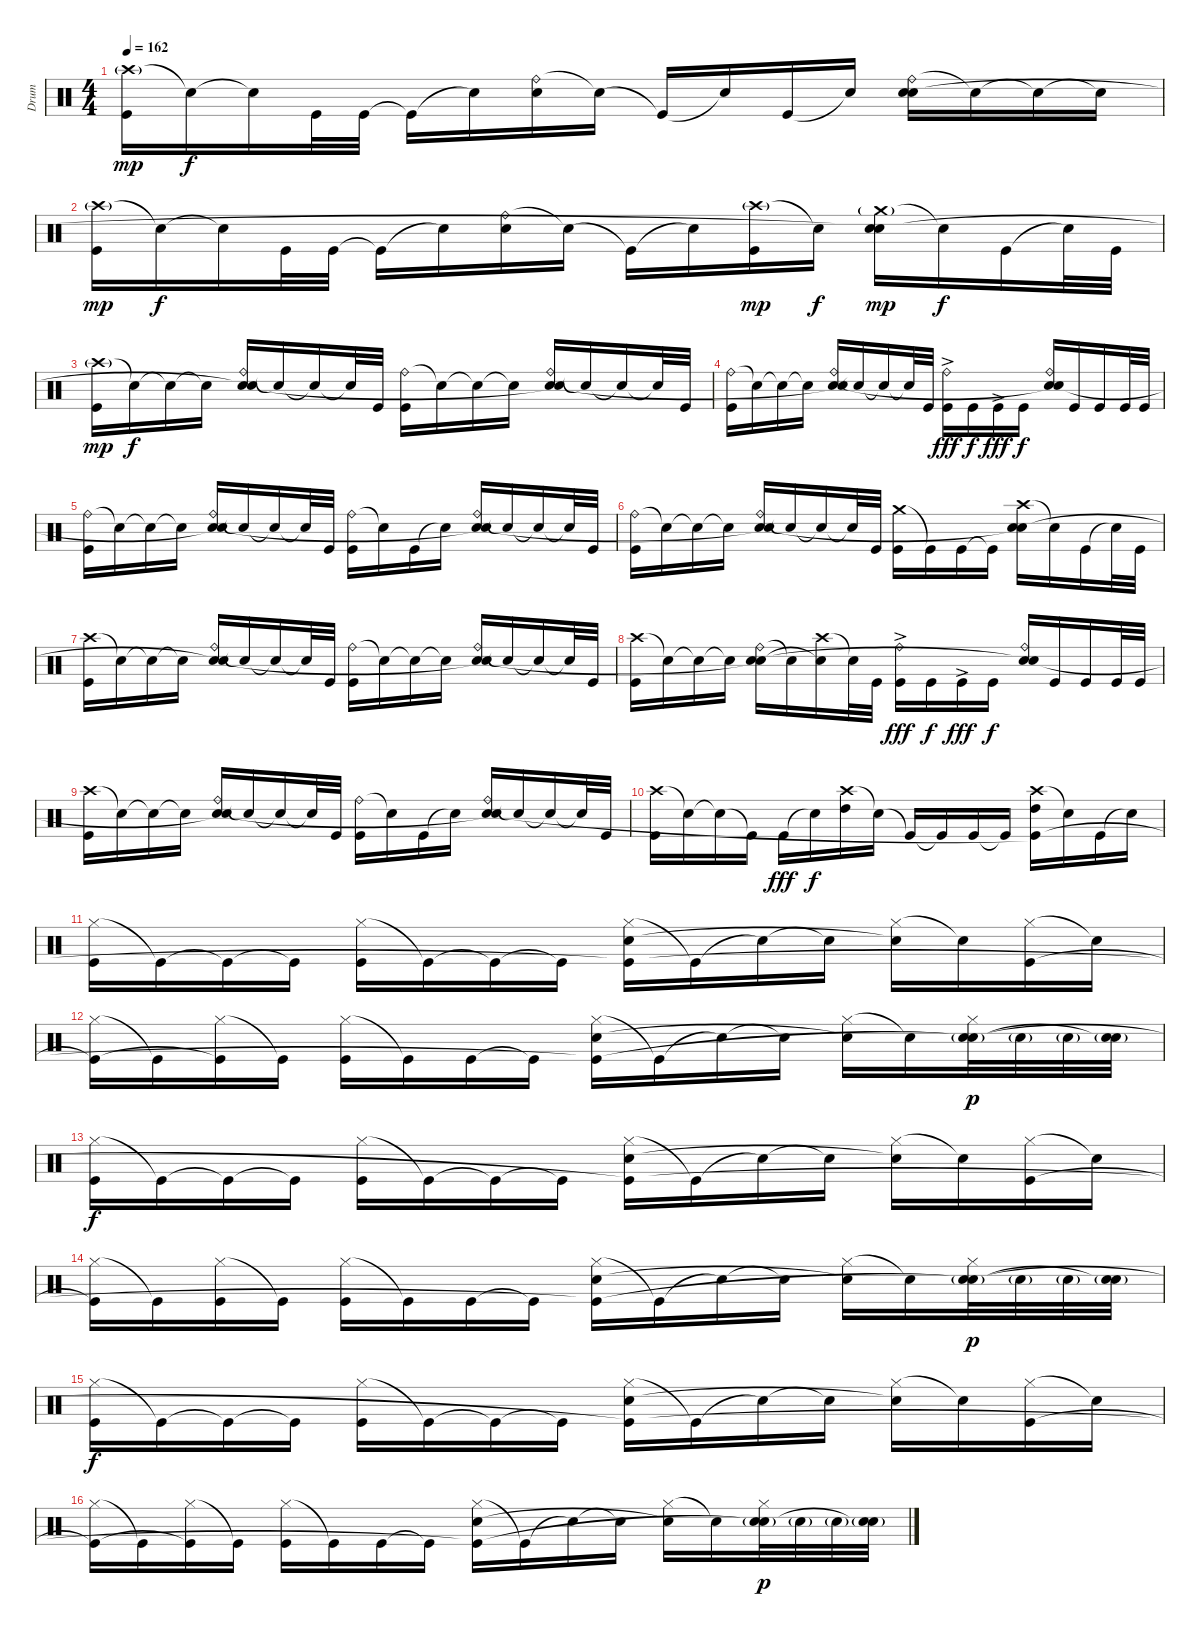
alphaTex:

\track ("Drum" "Drum") {instrument percussion}
\staff {score}
\articulation defaults
\ts (4 4)
\tempo 162
\clef neutral
\ks c
("Crash high (hit)"{g} "Kick (hit)").16{dy mp} "Snare (hit)"{t}.16{dy f} "Snare (hit)"{t}.16 "Kick (hit)".32 "Kick (hit)".32 "Kick (hit)"{t}.16 "Snare (hit)"{t}.16 ("Ride (bell)" "Electric Snare (hit)").16 "Snare (hit)"{t}.16 "Kick (hit)"{t}.16 "Snare (hit)"{t}.16 "Kick (hit)".16 "Snare (hit)"{t}.16 ("Ride (bell)" "Electric Snare (hit)" "Snare (hit)"{t}).16 "Snare (hit)"{t}.16 "Snare (hit)"{t}.16 "Snare (hit)"{t}.16 |
("Crash high (hit)"{g} "Kick (hit)").16{dy mp} "Snare (hit)"{t}.16{dy f} "Snare (hit)"{t}.16 "Kick (hit)".32 "Kick (hit)".32 "Kick (hit)"{t}.16 "Snare (hit)"{t}.16 ("Ride (bell)" "Electric Snare (hit)").16 "Snare (hit)"{t}.16 "Kick (hit)"{t}.16 "Snare (hit)"{t}.16 ("Crash high (hit)"{g} "Kick (hit)").16{dy mp} "Snare (hit)"{t}.16{dy f} ("Crash medium (hit)"{g} "Electric Snare (hit)" "Snare (hit)"{t}).16{dy mp} "Snare (hit)"{t}.16{dy f} "Kick (hit)".16 "Snare (hit)"{t}.32 "Kick (hit)".32 |
("Crash high (hit)"{g} "Kick (hit)").16{dy mp} "Snare (hit)"{t}.16{dy f} "Snare (hit)"{t}.16 "Snare (hit)"{t}.16 ("Ride (bell)" "Electric Snare (hit)" "Snare (hit)"{t}).16 "Snare (hit)"{t}.16 "Snare (hit)"{t}.16 "Snare (hit)"{t}.32 "Kick (hit)".32 ("Ride (bell)" "Kick (hit)").16 "Snare (hit)"{t}.16 "Snare (hit)"{t}.16 "Snare (hit)"{t}.16 ("Ride (bell)" "Electric Snare (hit)" "Snare (hit)"{t}).16 "Snare (hit)"{t}.16 "Snare (hit)"{t}.16 "Snare (hit)"{t}.32 "Kick (hit)".32 |
("Ride (bell)" "Kick (hit)").16 "Snare (hit)"{t}.16 "Snare (hit)"{t}.16 "Snare (hit)"{t}.16 ("Ride (bell)" "Electric Snare (hit)" "Snare (hit)"{t}).16 "Snare (hit)"{t}.16 "Snare (hit)"{t}.16 "Snare (hit)"{t}.32 "Kick (hit)".32 ("Ride (bell)" "Kick (hit)"{ac}).16{dy fff} "Kick (hit)".16{dy f} "Kick (hit)"{ac}.16{dy fff} "Kick (hit)".16{dy f} ("Ride (bell)" "Electric Snare (hit)" "Snare (hit)"{t}).16 "Kick (hit)".16 "Kick (hit)".16 "Kick (hit)".32 "Kick (hit)".32 |
("Ride (bell)" "Kick (hit)").16 "Snare (hit)"{t}.16 "Snare (hit)"{t}.16 "Snare (hit)"{t}.16 ("Ride (bell)" "Electric Snare (hit)" "Snare (hit)"{t}).16 "Snare (hit)"{t}.16 "Snare (hit)"{t}.16 "Snare (hit)"{t}.32 "Kick (hit)".32 ("Ride (bell)" "Kick (hit)").16 "Snare (hit)"{t}.16 "Kick (hit)".16 "Snare (hit)"{t}.16 ("Ride (bell)" "Electric Snare (hit)" "Snare (hit)"{t}).16 "Snare (hit)"{t}.16 "Snare (hit)"{t}.16 "Snare (hit)"{t}.32 "Kick (hit)".32 |
("Ride (bell)" "Kick (hit)").16 "Snare (hit)"{t}.16 "Snare (hit)"{t}.16 "Snare (hit)"{t}.16 ("Ride (bell)" "Electric Snare (hit)" "Snare (hit)"{t}).16 "Snare (hit)"{t}.16 "Snare (hit)"{t}.16 "Snare (hit)"{t}.32 "Kick (hit)".32 ("Crash medium (hit)" "Kick (hit)").16 "Kick (hit)"{t}.16 "Kick (hit)".16 "Kick (hit)"{t}.16 ("Crash high (hit)" "Electric Snare (hit)" "Snare (hit)"{t}).16 "Snare (hit)"{t}.16 "Kick (hit)".16 "Snare (hit)"{t}.32 "Kick (hit)".32 |
("Crash high (hit)" "Kick (hit)").16 "Snare (hit)"{t}.16 "Snare (hit)"{t}.16 "Snare (hit)"{t}.16 ("Ride (bell)" "Electric Snare (hit)" "Snare (hit)"{t}).16 "Snare (hit)"{t}.16 "Snare (hit)"{t}.16 "Snare (hit)"{t}.32 "Kick (hit)".32 ("Ride (bell)" "Kick (hit)").16 "Snare (hit)"{t}.16 "Snare (hit)"{t}.16 "Snare (hit)"{t}.16 ("Ride (bell)" "Electric Snare (hit)" "Snare (hit)"{t}).16 "Snare (hit)"{t}.16 "Snare (hit)"{t}.16 "Snare (hit)"{t}.32 "Kick (hit)".32 |
("Crash high (hit)" "Kick (hit)").16 "Snare (hit)"{t}.16 "Snare (hit)"{t}.16 "Snare (hit)"{t}.16 ("Ride (bell)" "Electric Snare (hit)" "Snare (hit)"{t}).16 "Snare (hit)"{t}.16 ("Crash high (hit)" "Snare (hit)"{t}).16 "Snare (hit)"{t}.32 "Kick (hit)".32 ("Ride (bell)" "Kick (hit)"{ac}).16{dy fff} "Kick (hit)".16{dy f} "Kick (hit)"{ac}.16{dy fff} "Kick (hit)".16{dy f} ("Ride (bell)" "Electric Snare (hit)" "Snare (hit)"{t}).16 "Kick (hit)".16 "Kick (hit)".16 "Kick (hit)".32 "Kick (hit)".32 |
("Crash high (hit)" "Kick (hit)").16 "Snare (hit)"{t}.16 "Snare (hit)"{t}.16 "Snare (hit)"{t}.16 ("Ride (bell)" "Electric Snare (hit)" "Snare (hit)"{t}).16 "Snare (hit)"{t}.16 "Snare (hit)"{t}.16 "Snare (hit)"{t}.32 "Kick (hit)".32 ("Ride (bell)" "Kick (hit)").16 "Snare (hit)"{t}.16 "Kick (hit)".16 "Snare (hit)"{t}.16 ("Ride (bell)" "Electric Snare (hit)" "Snare (hit)"{t}).16 "Snare (hit)"{t}.16 "Snare (hit)"{t}.16 "Snare (hit)"{t}.32 "Kick (hit)".32 |
("Crash high (hit)" "Kick (hit)").16 "Snare (hit)"{t}.16 "Snare (hit)"{t}.16 "Kick (hit)"{t}.16 "Kick (hit)".16{dy fff} "Snare (hit)"{t}.16{dy f} ("Crash high (hit)" "High Tom (hit)").16 "Snare (hit)"{t}.16 "Kick (hit)"{t}.16 "Kick (hit)"{t}.16 "Kick (hit)".16 "Kick (hit)"{t}.16 ("Crash high (hit)" "High Tom (hit)" "Kick (hit)"{t}).16 "Snare (hit)"{t}.16 "Kick (hit)".16 "Snare (hit)"{t}.16 |
("Hi-Hat (closed)" "Kick (hit)").16 "Kick (hit)"{t}.16 "Kick (hit)"{t}.16 "Kick (hit)"{t}.16 ("Hi-Hat (closed)" "Kick (hit)").16 "Kick (hit)"{t}.16 "Kick (hit)"{t}.16 "Kick (hit)"{t}.16 ("Hi-Hat (closed)" "Electric Snare (hit)" "Kick (hit)"{t}).16 "Kick (hit)"{t}.16 "Snare (hit)"{t}.16 "Snare (hit)"{t}.16 ("Hi-Hat (closed)" "Snare (hit)"{t}).16 "Snare (hit)"{t}.16 ("Hi-Hat (closed)" "Kick (hit)").16 "Snare (hit)"{t}.16 |
("Hi-Hat (closed)" "Kick (hit)"{t}).16 "Kick (hit)"{t}.16 ("Hi-Hat (closed)" "Kick (hit)"{t}).16 "Kick (hit)"{t}.16 ("Hi-Hat (closed)" "Kick (hit)").16 "Kick (hit)"{t}.16 "Kick (hit)".16 "Kick (hit)"{t}.16 ("Hi-Hat (closed)" "Electric Snare (hit)" "Kick (hit)"{t}).16 "Kick (hit)"{t}.16 "Snare (hit)"{t}.16 "Snare (hit)"{t}.16 ("Hi-Hat (closed)" "Snare (hit)"{t}).16 "Snare (hit)"{t}.16 ("Hi-Hat (closed)" "Electric Snare (hit)"{g} "Snare (hit)"{t}).32{dy p} "Electric Snare (hit)"{g}.32 "Electric Snare (hit)"{g}.32 ("Electric Snare (hit)"{g} "Snare (hit)"{t}).32 |
("Hi-Hat (closed)" "Kick (hit)").16{dy f} "Kick (hit)"{t}.16 "Kick (hit)"{t}.16 "Kick (hit)"{t}.16 ("Hi-Hat (closed)" "Kick (hit)").16 "Kick (hit)"{t}.16 "Kick (hit)"{t}.16 "Kick (hit)"{t}.16 ("Hi-Hat (closed)" "Electric Snare (hit)" "Kick (hit)"{t}).16 "Kick (hit)"{t}.16 "Snare (hit)"{t}.16 "Snare (hit)"{t}.16 ("Hi-Hat (closed)" "Snare (hit)"{t}).16 "Snare (hit)"{t}.16 ("Hi-Hat (closed)" "Kick (hit)").16 "Snare (hit)"{t}.16 |
("Hi-Hat (closed)" "Kick (hit)"{t}).16 "Kick (hit)"{t}.16 ("Hi-Hat (closed)" "Kick (hit)").16 "Kick (hit)"{t}.16 ("Hi-Hat (closed)" "Kick (hit)").16 "Kick (hit)"{t}.16 "Kick (hit)".16 "Kick (hit)"{t}.16 ("Hi-Hat (closed)" "Electric Snare (hit)" "Kick (hit)"{t}).16 "Kick (hit)"{t}.16 "Snare (hit)"{t}.16 "Snare (hit)"{t}.16 ("Hi-Hat (closed)" "Snare (hit)"{t}).16 "Snare (hit)"{t}.16 ("Hi-Hat (closed)" "Electric Snare (hit)"{g} "Snare (hit)"{t}).32{dy p} "Electric Snare (hit)"{g}.32 "Electric Snare (hit)"{g}.32 ("Electric Snare (hit)"{g} "Snare (hit)"{t}).32 |
("Hi-Hat (closed)" "Kick (hit)").16{dy f} "Kick (hit)"{t}.16 "Kick (hit)"{t}.16 "Kick (hit)"{t}.16 ("Hi-Hat (closed)" "Kick (hit)").16 "Kick (hit)"{t}.16 "Kick (hit)"{t}.16 "Kick (hit)"{t}.16 ("Hi-Hat (closed)" "Electric Snare (hit)" "Kick (hit)"{t}).16 "Kick (hit)"{t}.16 "Snare (hit)"{t}.16 "Snare (hit)"{t}.16 ("Hi-Hat (closed)" "Snare (hit)"{t}).16 "Snare (hit)"{t}.16 ("Hi-Hat (closed)" "Kick (hit)").16 "Snare (hit)"{t}.16 |
("Hi-Hat (closed)" "Kick (hit)"{t}).16 "Kick (hit)"{t}.16 ("Hi-Hat (closed)" "Kick (hit)"{t}).16 "Kick (hit)"{t}.16 ("Hi-Hat (closed)" "Kick (hit)").16 "Kick (hit)"{t}.16 "Kick (hit)".16 "Kick (hit)"{t}.16 ("Hi-Hat (closed)" "Electric Snare (hit)" "Kick (hit)"{t}).16 "Kick (hit)"{t}.16 "Snare (hit)"{t}.16 "Snare (hit)"{t}.16 ("Hi-Hat (closed)" "Snare (hit)"{t}).16 "Snare (hit)"{t}.16 ("Hi-Hat (closed)" "Electric Snare (hit)"{g} "Snare (hit)"{t}).32{dy p} "Electric Snare (hit)"{g}.32 "Electric Snare (hit)"{g}.32 ("Electric Snare (hit)"{g} "Snare (hit)"{t}).32
